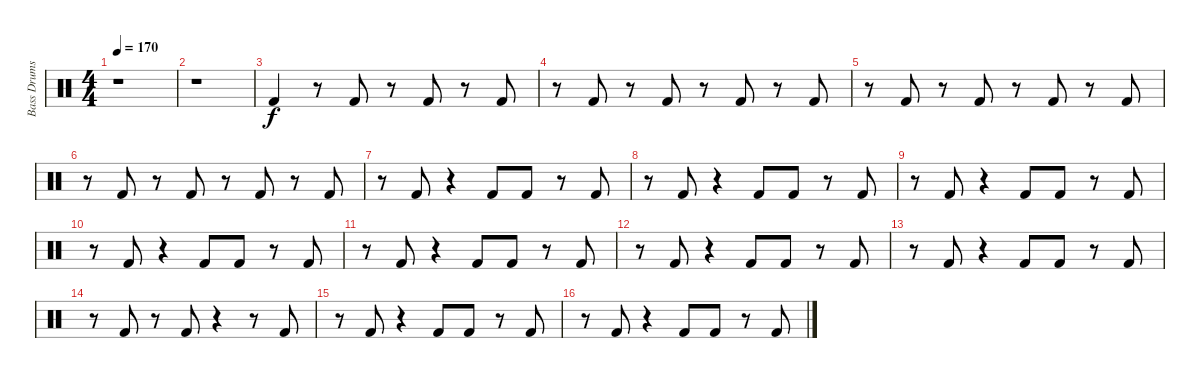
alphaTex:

\track ("Bass Drums" "Bass Drums") {instrument percussion}
\staff {score}
\articulation defaults
\ts (4 4)
\tempo 170
\clef neutral
\ks c
r.1{dy f} |
r.1 |
"Kick (hit) 2".4 r.8 "Kick (hit) 2".8 r.8 "Kick (hit) 2".8 r.8 "Kick (hit) 2".8 |
r.8 "Kick (hit) 2".8 r.8 "Kick (hit) 2".8 r.8 "Kick (hit) 2".8 r.8 "Kick (hit) 2".8 |
r.8 "Kick (hit) 2".8 r.8 "Kick (hit) 2".8 r.8 "Kick (hit) 2".8 r.8 "Kick (hit) 2".8 |
r.8 "Kick (hit) 2".8 r.8 "Kick (hit) 2".8 r.8 "Kick (hit) 2".8 r.8 "Kick (hit) 2".8 |
r.8 "Kick (hit) 2".8 r.4 "Kick (hit) 2".8 "Kick (hit) 2".8 r.8 "Kick (hit) 2".8 |
r.8 "Kick (hit) 2".8 r.4 "Kick (hit) 2".8 "Kick (hit) 2".8 r.8 "Kick (hit) 2".8 |
r.8 "Kick (hit) 2".8 r.4 "Kick (hit) 2".8 "Kick (hit) 2".8 r.8 "Kick (hit) 2".8 |
r.8 "Kick (hit) 2".8 r.4 "Kick (hit) 2".8 "Kick (hit) 2".8 r.8 "Kick (hit) 2".8 |
r.8 "Kick (hit) 2".8 r.4 "Kick (hit) 2".8 "Kick (hit) 2".8 r.8 "Kick (hit) 2".8 |
r.8 "Kick (hit) 2".8 r.4 "Kick (hit) 2".8 "Kick (hit) 2".8 r.8 "Kick (hit) 2".8 |
r.8 "Kick (hit) 2".8 r.4 "Kick (hit) 2".8 "Kick (hit) 2".8 r.8 "Kick (hit) 2".8 |
r.8 "Kick (hit) 2".8 r.8 "Kick (hit) 2".8 r.4 r.8 "Kick (hit) 2".8 |
r.8 "Kick (hit) 2".8 r.4 "Kick (hit) 2".8 "Kick (hit) 2".8 r.8 "Kick (hit) 2".8 |
r.8 "Kick (hit) 2".8 r.4 "Kick (hit) 2".8 "Kick (hit) 2".8 r.8 "Kick (hit) 2".8
